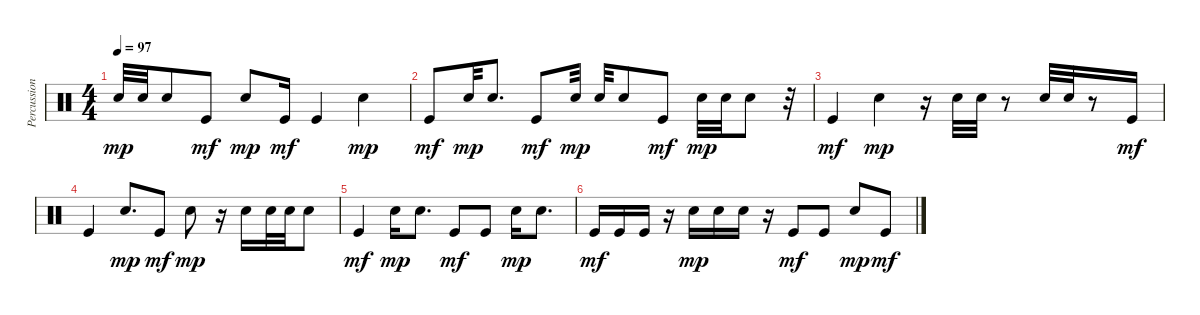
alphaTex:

\track ("Percussion" "Percussion") {instrument percussion}
\staff {score}
\articulation defaults
\ts (4 4)
\tempo 97
\clef neutral
\ks c "Electric Snare (hit)".32{dy mp} "Electric Snare (hit)".32 "Electric Snare (hit)".8 "Kick (hit)".8{dy mf} "Electric Snare (hit)".8{dy mp} "Kick (hit)".16{dy mf} "Kick (hit)".4 "Electric Snare (hit)".4{dy mp}
|
"Kick (hit)".8{dy mf} "Electric Snare (hit)".32{dy mp} "Electric Snare (hit)".8{d} "Kick (hit)".8{dy mf} "Electric Snare (hit)".32{dy mp} "Electric Snare (hit)".32 "Electric Snare (hit)".8 "Kick (hit)".8{dy mf} "Electric Snare (hit)".32{dy mp} "Electric Snare (hit)".32 "Electric Snare (hit)".8 r.32 |
"Kick (hit)".4{dy mf volume 0} "Electric Snare (hit)".4{dy mp} r.16 "Electric Snare (hit)".32 "Electric Snare (hit)".32 r.8 "Electric Snare (hit)".32 "Electric Snare (hit)".32 r.8 "Kick (hit)".16{dy mf} |
"Kick (hit)".4 "Electric Snare (hit)".8{d dy mp} "Kick (hit)".8{dy mf} "Electric Snare (hit)".8{dy mp} r.16 "Electric Snare (hit)".16 "Electric Snare (hit)".32 "Electric Snare (hit)".32 "Electric Snare (hit)".8 |
"Kick (hit)".4{dy mf} "Electric Snare (hit)".16{dy mp} "Electric Snare (hit)".8{d} "Kick (hit)".8{dy mf} "Kick (hit)".8 "Electric Snare (hit)".16{dy mp} "Electric Snare (hit)".8{d} |
"Kick (hit)".16{dy mf} "Kick (hit)".16 "Kick (hit)".16 r.16 "Electric Snare (hit)".16{dy mp} "Electric Snare (hit)".16 "Electric Snare (hit)".16 r.16 "Kick (hit)".8{dy mf} "Kick (hit)".8 "Electric Snare (hit)".8{dy mp} "Kick (hit)".8{dy mf}
